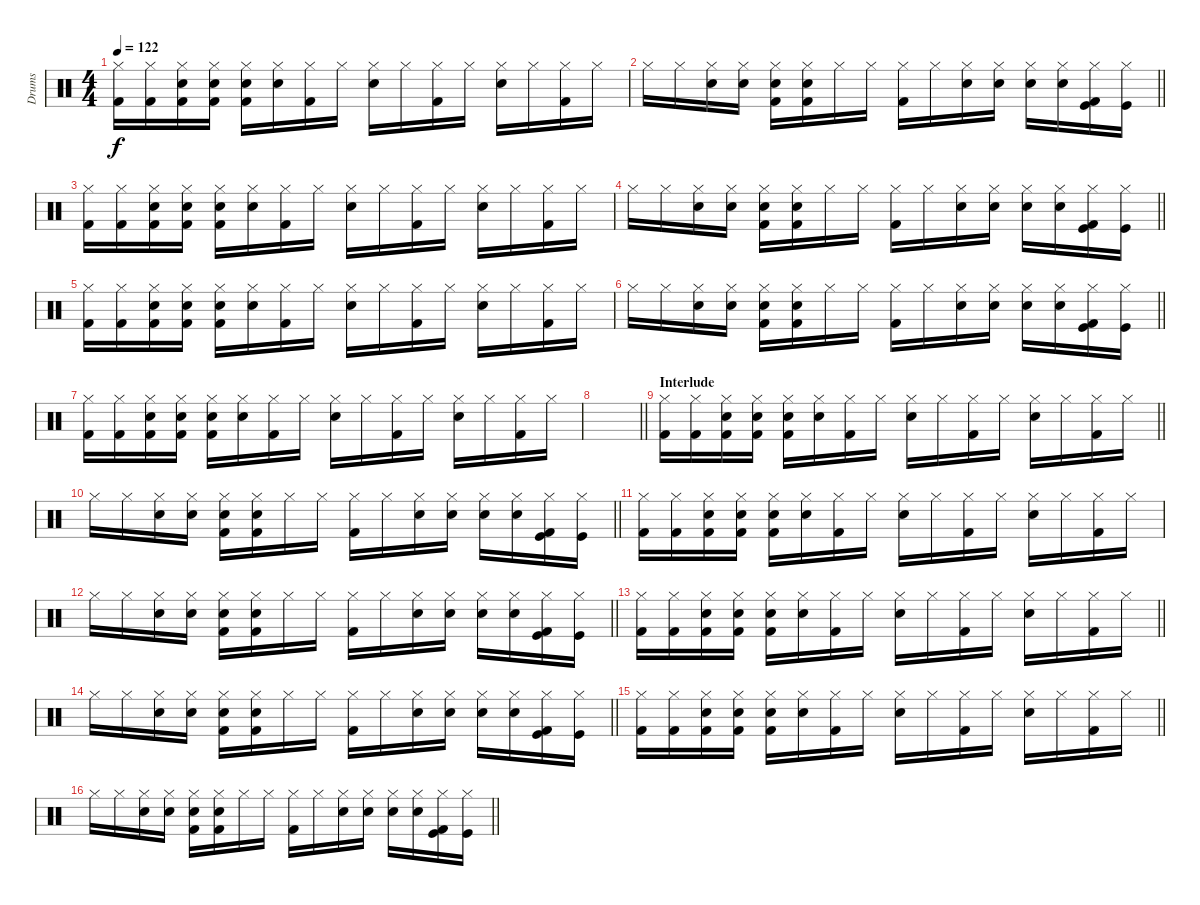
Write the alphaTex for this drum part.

\track ("Drums" "Drums") {instrument percussion}
\staff {score}
\articulation defaults
\ts (4 4)
\tempo 122
\clef neutral
\ks c
("Hi-Hat (closed)" "Kick (hit) 2").16{dy f} ("Hi-Hat (closed)" "Kick (hit) 2").16 ("Hi-Hat (closed)" "Hand Clap (hit)" "Kick (hit) 2").16 ("Hi-Hat (closed)" "Hand Clap (hit)" "Kick (hit) 2").16 ("Hi-Hat (closed)" "Hand Clap (hit)" "Kick (hit) 2").16 ("Hi-Hat (closed)" "Hand Clap (hit)").16 ("Hi-Hat (closed)" "Kick (hit) 2").16 "Hi-Hat (closed)".16 ("Hi-Hat (closed)" "Electric Snare (hit)").16 "Hi-Hat (closed)".16 ("Hi-Hat (closed)" "Kick (hit) 2").16 "Hi-Hat (closed)".16 ("Hi-Hat (closed)" "Electric Snare (hit)").16 "Hi-Hat (closed)".16 ("Hi-Hat (closed)" "Kick (hit) 2").16 "Hi-Hat (closed)".16 |
\barLineRight lightlight "Hi-Hat (closed)".16 "Hi-Hat (closed)".16
("Hi-Hat (closed)" "Hand Clap (hit)").16 ("Hi-Hat (closed)" "Hand Clap (hit)").16 ("Hi-Hat (closed)" "Hand Clap (hit)" "Kick (hit) 2").16 ("Hi-Hat (closed)" "Hand Clap (hit)" "Kick (hit) 2").16 "Hi-Hat (closed)".16 "Hi-Hat (closed)".16 ("Hi-Hat (closed)" "Kick (hit) 2").16 "Hi-Hat (closed)".16 ("Hi-Hat (closed)" "Hand Clap (hit)").16 ("Hi-Hat (closed)" "Hand Clap (hit)").16 ("Hi-Hat (closed)" "Hand Clap (hit)").16 ("Hi-Hat (closed)" "Hand Clap (hit)").16 ("Hi-Hat (closed)" "Kick (hit)" "Kick (hit) 2").16 ("Hi-Hat (closed)" "Kick (hit)").16 |
("Hi-Hat (closed)" "Kick (hit) 2").16 ("Hi-Hat (closed)" "Kick (hit) 2").16 ("Hi-Hat (closed)" "Hand Clap (hit)" "Kick (hit) 2").16 ("Hi-Hat (closed)" "Hand Clap (hit)" "Kick (hit) 2").16 ("Hi-Hat (closed)" "Hand Clap (hit)" "Kick (hit) 2").16 ("Hi-Hat (closed)" "Hand Clap (hit)").16 ("Hi-Hat (closed)" "Kick (hit) 2").16 "Hi-Hat (closed)".16 ("Hi-Hat (closed)" "Electric Snare (hit)").16 "Hi-Hat (closed)".16 ("Hi-Hat (closed)" "Kick (hit) 2").16 "Hi-Hat (closed)".16 ("Hi-Hat (closed)" "Electric Snare (hit)").16 "Hi-Hat (closed)".16 ("Hi-Hat (closed)" "Kick (hit) 2").16 "Hi-Hat (closed)".16 |
\barLineRight lightlight "Hi-Hat (closed)".16 "Hi-Hat (closed)".16
("Hi-Hat (closed)" "Hand Clap (hit)").16 ("Hi-Hat (closed)" "Hand Clap (hit)").16 ("Hi-Hat (closed)" "Hand Clap (hit)" "Kick (hit) 2").16 ("Hi-Hat (closed)" "Hand Clap (hit)" "Kick (hit) 2").16 "Hi-Hat (closed)".16 "Hi-Hat (closed)".16 ("Hi-Hat (closed)" "Kick (hit) 2").16 "Hi-Hat (closed)".16 ("Hi-Hat (closed)" "Hand Clap (hit)").16 ("Hi-Hat (closed)" "Hand Clap (hit)").16 ("Hi-Hat (closed)" "Hand Clap (hit)").16 ("Hi-Hat (closed)" "Hand Clap (hit)").16 ("Hi-Hat (closed)" "Kick (hit)" "Kick (hit) 2").16 ("Hi-Hat (closed)" "Kick (hit)").16 |
("Hi-Hat (closed)" "Kick (hit) 2").16 ("Hi-Hat (closed)" "Kick (hit) 2").16 ("Hi-Hat (closed)" "Hand Clap (hit)" "Kick (hit) 2").16 ("Hi-Hat (closed)" "Hand Clap (hit)" "Kick (hit) 2").16 ("Hi-Hat (closed)" "Hand Clap (hit)" "Kick (hit) 2").16 ("Hi-Hat (closed)" "Hand Clap (hit)").16 ("Hi-Hat (closed)" "Kick (hit) 2").16 "Hi-Hat (closed)".16 ("Hi-Hat (closed)" "Electric Snare (hit)").16 "Hi-Hat (closed)".16 ("Hi-Hat (closed)" "Kick (hit) 2").16 "Hi-Hat (closed)".16 ("Hi-Hat (closed)" "Electric Snare (hit)").16 "Hi-Hat (closed)".16 ("Hi-Hat (closed)" "Kick (hit) 2").16 "Hi-Hat (closed)".16 |
\barLineRight lightlight "Hi-Hat (closed)".16 "Hi-Hat (closed)".16
("Hi-Hat (closed)" "Hand Clap (hit)").16 ("Hi-Hat (closed)" "Hand Clap (hit)").16 ("Hi-Hat (closed)" "Hand Clap (hit)" "Kick (hit) 2").16 ("Hi-Hat (closed)" "Hand Clap (hit)" "Kick (hit) 2").16 "Hi-Hat (closed)".16 "Hi-Hat (closed)".16 ("Hi-Hat (closed)" "Kick (hit) 2").16 "Hi-Hat (closed)".16 ("Hi-Hat (closed)" "Hand Clap (hit)").16 ("Hi-Hat (closed)" "Hand Clap (hit)").16 ("Hi-Hat (closed)" "Hand Clap (hit)").16 ("Hi-Hat (closed)" "Hand Clap (hit)").16 ("Hi-Hat (closed)" "Kick (hit)" "Kick (hit) 2").16 ("Hi-Hat (closed)" "Kick (hit)").16 |
("Hi-Hat (closed)" "Kick (hit) 2").16 ("Hi-Hat (closed)" "Kick (hit) 2").16 ("Hi-Hat (closed)" "Hand Clap (hit)" "Kick (hit) 2").16 ("Hi-Hat (closed)" "Hand Clap (hit)" "Kick (hit) 2").16 ("Hi-Hat (closed)" "Hand Clap (hit)" "Kick (hit) 2").16 ("Hi-Hat (closed)" "Hand Clap (hit)").16 ("Hi-Hat (closed)" "Kick (hit) 2").16 "Hi-Hat (closed)".16 ("Hi-Hat (closed)" "Electric Snare (hit)").16 "Hi-Hat (closed)".16 ("Hi-Hat (closed)" "Kick (hit) 2").16 "Hi-Hat (closed)".16 ("Hi-Hat (closed)" "Electric Snare (hit)").16 "Hi-Hat (closed)".16 ("Hi-Hat (closed)" "Kick (hit) 2").16 "Hi-Hat (closed)".16 |
\barLineRight lightlight
|
\section ("" "Interlude")
\barLineRight lightlight
("Hi-Hat (closed)" "Kick (hit) 2").16 ("Hi-Hat (closed)" "Kick (hit) 2").16 ("Hi-Hat (closed)" "Hand Clap (hit)" "Kick (hit) 2").16 ("Hi-Hat (closed)" "Hand Clap (hit)" "Kick (hit) 2").16 ("Hi-Hat (closed)" "Hand Clap (hit)" "Kick (hit) 2").16 ("Hi-Hat (closed)" "Hand Clap (hit)").16 ("Hi-Hat (closed)" "Kick (hit) 2").16 "Hi-Hat (closed)".16 ("Hi-Hat (closed)" "Electric Snare (hit)").16 "Hi-Hat (closed)".16 ("Hi-Hat (closed)" "Kick (hit) 2").16 "Hi-Hat (closed)".16 ("Hi-Hat (closed)" "Electric Snare (hit)").16 "Hi-Hat (closed)".16 ("Hi-Hat (closed)" "Kick (hit) 2").16 "Hi-Hat (closed)".16 |
\barLineRight lightlight "Hi-Hat (closed)".16 "Hi-Hat (closed)".16
("Hi-Hat (closed)" "Hand Clap (hit)").16 ("Hi-Hat (closed)" "Hand Clap (hit)").16 ("Hi-Hat (closed)" "Hand Clap (hit)" "Kick (hit) 2").16 ("Hi-Hat (closed)" "Hand Clap (hit)" "Kick (hit) 2").16 "Hi-Hat (closed)".16 "Hi-Hat (closed)".16 ("Hi-Hat (closed)" "Kick (hit) 2").16 "Hi-Hat (closed)".16 ("Hi-Hat (closed)" "Hand Clap (hit)").16 ("Hi-Hat (closed)" "Hand Clap (hit)").16 ("Hi-Hat (closed)" "Hand Clap (hit)").16 ("Hi-Hat (closed)" "Hand Clap (hit)").16 ("Hi-Hat (closed)" "Kick (hit)" "Kick (hit) 2").16 ("Hi-Hat (closed)" "Kick (hit)").16 |
("Hi-Hat (closed)" "Kick (hit) 2").16 ("Hi-Hat (closed)" "Kick (hit) 2").16 ("Hi-Hat (closed)" "Hand Clap (hit)" "Kick (hit) 2").16 ("Hi-Hat (closed)" "Hand Clap (hit)" "Kick (hit) 2").16 ("Hi-Hat (closed)" "Hand Clap (hit)" "Kick (hit) 2").16 ("Hi-Hat (closed)" "Hand Clap (hit)").16 ("Hi-Hat (closed)" "Kick (hit) 2").16 "Hi-Hat (closed)".16 ("Hi-Hat (closed)" "Electric Snare (hit)").16 "Hi-Hat (closed)".16 ("Hi-Hat (closed)" "Kick (hit) 2").16 "Hi-Hat (closed)".16 ("Hi-Hat (closed)" "Electric Snare (hit)").16 "Hi-Hat (closed)".16 ("Hi-Hat (closed)" "Kick (hit) 2").16 "Hi-Hat (closed)".16 |
\barLineRight lightlight "Hi-Hat (closed)".16 "Hi-Hat (closed)".16
("Hi-Hat (closed)" "Hand Clap (hit)").16 ("Hi-Hat (closed)" "Hand Clap (hit)").16 ("Hi-Hat (closed)" "Hand Clap (hit)" "Kick (hit) 2").16 ("Hi-Hat (closed)" "Hand Clap (hit)" "Kick (hit) 2").16 "Hi-Hat (closed)".16 "Hi-Hat (closed)".16 ("Hi-Hat (closed)" "Kick (hit) 2").16 "Hi-Hat (closed)".16 ("Hi-Hat (closed)" "Hand Clap (hit)").16 ("Hi-Hat (closed)" "Hand Clap (hit)").16 ("Hi-Hat (closed)" "Hand Clap (hit)").16 ("Hi-Hat (closed)" "Hand Clap (hit)").16 ("Hi-Hat (closed)" "Kick (hit)" "Kick (hit) 2").16 ("Hi-Hat (closed)" "Kick (hit)").16 |
\barLineRight lightlight
("Hi-Hat (closed)" "Kick (hit) 2").16 ("Hi-Hat (closed)" "Kick (hit) 2").16 ("Hi-Hat (closed)" "Hand Clap (hit)" "Kick (hit) 2").16 ("Hi-Hat (closed)" "Hand Clap (hit)" "Kick (hit) 2").16 ("Hi-Hat (closed)" "Hand Clap (hit)" "Kick (hit) 2").16 ("Hi-Hat (closed)" "Hand Clap (hit)").16 ("Hi-Hat (closed)" "Kick (hit) 2").16 "Hi-Hat (closed)".16 ("Hi-Hat (closed)" "Electric Snare (hit)").16 "Hi-Hat (closed)".16 ("Hi-Hat (closed)" "Kick (hit) 2").16 "Hi-Hat (closed)".16 ("Hi-Hat (closed)" "Electric Snare (hit)").16 "Hi-Hat (closed)".16 ("Hi-Hat (closed)" "Kick (hit) 2").16 "Hi-Hat (closed)".16 |
\barLineRight lightlight "Hi-Hat (closed)".16 "Hi-Hat (closed)".16
("Hi-Hat (closed)" "Hand Clap (hit)").16 ("Hi-Hat (closed)" "Hand Clap (hit)").16 ("Hi-Hat (closed)" "Hand Clap (hit)" "Kick (hit) 2").16 ("Hi-Hat (closed)" "Hand Clap (hit)" "Kick (hit) 2").16 "Hi-Hat (closed)".16 "Hi-Hat (closed)".16 ("Hi-Hat (closed)" "Kick (hit) 2").16 "Hi-Hat (closed)".16 ("Hi-Hat (closed)" "Hand Clap (hit)").16 ("Hi-Hat (closed)" "Hand Clap (hit)").16 ("Hi-Hat (closed)" "Hand Clap (hit)").16 ("Hi-Hat (closed)" "Hand Clap (hit)").16 ("Hi-Hat (closed)" "Kick (hit)" "Kick (hit) 2").16 ("Hi-Hat (closed)" "Kick (hit)").16 |
\barLineRight lightlight
("Hi-Hat (closed)" "Kick (hit) 2").16 ("Hi-Hat (closed)" "Kick (hit) 2").16 ("Hi-Hat (closed)" "Hand Clap (hit)" "Kick (hit) 2").16 ("Hi-Hat (closed)" "Hand Clap (hit)" "Kick (hit) 2").16 ("Hi-Hat (closed)" "Hand Clap (hit)" "Kick (hit) 2").16 ("Hi-Hat (closed)" "Hand Clap (hit)").16 ("Hi-Hat (closed)" "Kick (hit) 2").16 "Hi-Hat (closed)".16 ("Hi-Hat (closed)" "Electric Snare (hit)").16 "Hi-Hat (closed)".16 ("Hi-Hat (closed)" "Kick (hit) 2").16 "Hi-Hat (closed)".16 ("Hi-Hat (closed)" "Electric Snare (hit)").16 "Hi-Hat (closed)".16 ("Hi-Hat (closed)" "Kick (hit) 2").16 "Hi-Hat (closed)".16 |
\barLineRight lightlight "Hi-Hat (closed)".16 "Hi-Hat (closed)".16
("Hi-Hat (closed)" "Hand Clap (hit)").16 ("Hi-Hat (closed)" "Hand Clap (hit)").16 ("Hi-Hat (closed)" "Hand Clap (hit)" "Kick (hit) 2").16 ("Hi-Hat (closed)" "Hand Clap (hit)" "Kick (hit) 2").16 "Hi-Hat (closed)".16 "Hi-Hat (closed)".16 ("Hi-Hat (closed)" "Kick (hit) 2").16 "Hi-Hat (closed)".16 ("Hi-Hat (closed)" "Hand Clap (hit)").16 ("Hi-Hat (closed)" "Hand Clap (hit)").16 ("Hi-Hat (closed)" "Hand Clap (hit)").16 ("Hi-Hat (closed)" "Hand Clap (hit)").16 ("Hi-Hat (closed)" "Kick (hit)" "Kick (hit) 2").16 ("Hi-Hat (closed)" "Kick (hit)").16
